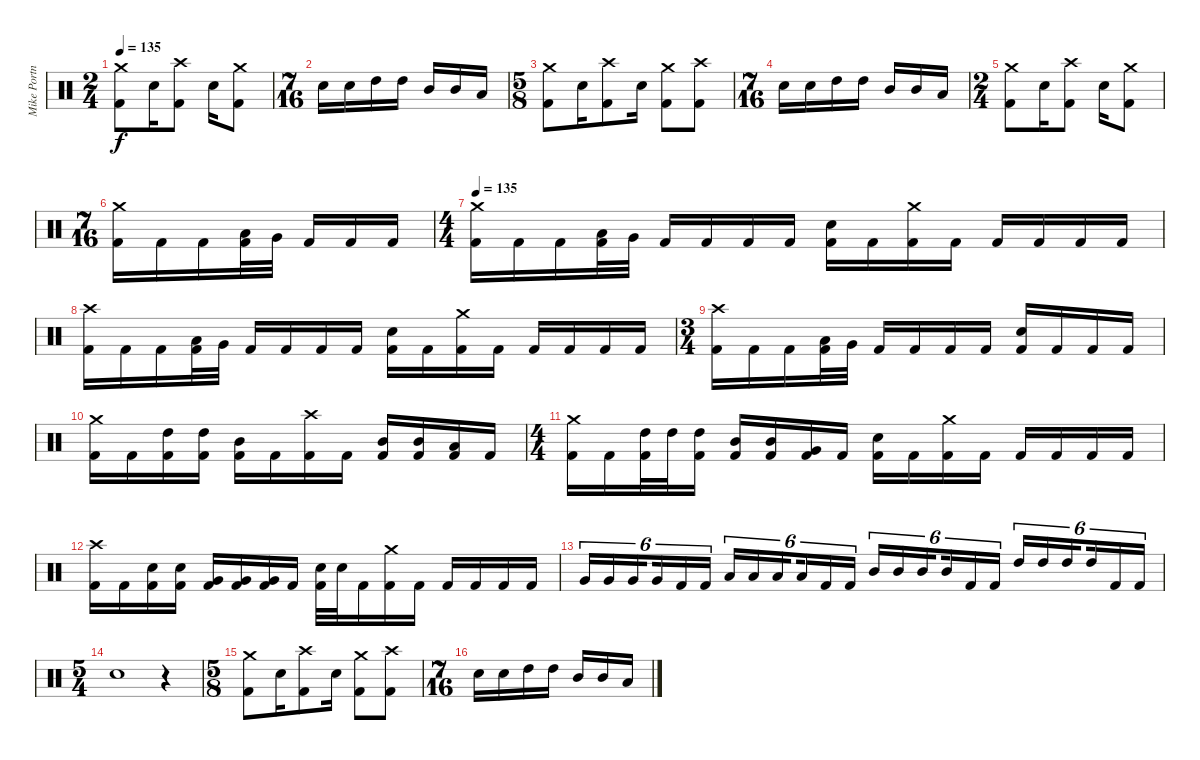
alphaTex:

\track ("Mike Portnoy Drums" "Mike Portn") {instrument percussion}
\staff {score}
\articulation defaults
\ts (2 4)
\tempo 135
\clef neutral
\ks c
("Crash medium (hit)" "Kick (hit) 2").8{dy f} "Snare (hit) 2".16 ("Crash high (hit)" "Kick (hit) 2").8 "Snare (hit) 2".16 ("Crash medium (hit)" "Kick (hit) 2").8 |
\ts (7 16)
"Snare (hit) 2".16 "Snare (hit) 2".16 "High Tom (hit)".16 "High Tom (hit)".16 "Mid Tom (hit)".16 "Mid Tom (hit)".16 "Low Tom (hit)".16 |
\ts (5 8)
("Crash medium (hit)" "Kick (hit) 2").8 "Snare (hit) 2".16 ("Crash high (hit)" "Kick (hit) 2").8 "Snare (hit) 2".16 ("Crash medium (hit)" "Kick (hit) 2").8 ("Crash high (hit)" "Kick (hit) 2").8 |
\ts (7 16)
"Snare (hit) 2".16 "Snare (hit) 2".16 "High Tom (hit)".16 "High Tom (hit)".16 "Mid Tom (hit)".16 "Mid Tom (hit)".16 "Low Tom (hit)".16 |
\ts (2 4)
("Crash medium (hit)" "Kick (hit) 2").8 "Snare (hit) 2".16 ("Crash high (hit)" "Kick (hit) 2").8 "Snare (hit) 2".16 ("Crash medium (hit)" "Kick (hit) 2").8 |
\ts (7 16)
("Crash medium (hit)" "Kick (hit) 2").16 "Kick (hit) 2".16 "Kick (hit) 2".16 ("Low Tom (hit)" "Kick (hit) 2").32 "Very Low Tom (hit)".32 "Kick (hit) 2".16 "Kick (hit) 2".16 "Kick (hit) 2".16 |
\ts (4 4)
\tempo 135
("Crash medium (hit)" "Kick (hit) 2").16 "Kick (hit) 2".16 "Kick (hit) 2".16 ("Low Tom (hit)" "Kick (hit) 2").32 "Very Low Tom (hit)".32 "Kick (hit) 2".16 "Kick (hit) 2".16 "Kick (hit) 2".16 "Kick (hit) 2".16 ("Snare (hit) 2" "Kick (hit) 2").16 "Kick (hit) 2".16 ("Crash medium (hit)" "Kick (hit) 2").16 "Kick (hit) 2".16 "Kick (hit) 2".16 "Kick (hit) 2".16 "Kick (hit) 2".16 "Kick (hit) 2".16 |
("Crash high (hit)" "Kick (hit) 2").16 "Kick (hit) 2".16 "Kick (hit) 2".16 ("Low Tom (hit)" "Kick (hit) 2").32 "Very Low Tom (hit)".32 "Kick (hit) 2".16 "Kick (hit) 2".16 "Kick (hit) 2".16 "Kick (hit) 2".16 ("Snare (hit) 2" "Kick (hit) 2").16 "Kick (hit) 2".16 ("Crash medium (hit)" "Kick (hit) 2").16 "Kick (hit) 2".16 "Kick (hit) 2".16 "Kick (hit) 2".16 "Kick (hit) 2".16 "Kick (hit) 2".16 |
\ts (3 4)
("Crash high (hit)" "Kick (hit) 2").16 "Kick (hit) 2".16 "Kick (hit) 2".16 ("Low Tom (hit)" "Kick (hit) 2").32 "Very Low Tom (hit)".32 "Kick (hit) 2".16 "Kick (hit) 2".16 "Kick (hit) 2".16 "Kick (hit) 2".16 ("Snare (hit) 2" "Kick (hit) 2").16 "Kick (hit) 2".16 "Kick (hit) 2".16 "Kick (hit) 2".16 |
("Crash medium (hit)" "Kick (hit) 2").16 "Kick (hit) 2".16 ("High Tom (hit)" "Kick (hit) 2").16 ("High Tom (hit)" "Kick (hit) 2").16 ("Mid Tom (hit)" "Kick (hit) 2").16 "Kick (hit) 2".16 ("Crash high (hit)" "Kick (hit) 2").16 "Kick (hit) 2".16 ("Mid Tom (hit)" "Kick (hit) 2").16 ("Mid Tom (hit)" "Kick (hit) 2").16 ("Low Floor Tom (hit)" "Kick (hit) 2").16 "Kick (hit) 2".16 |
\ts (4 4)
("Crash medium (hit)" "Kick (hit) 2").16 "Kick (hit) 2".16 ("High Tom (hit)" "Kick (hit) 2").32 "High Tom (hit)".32 ("High Tom (hit)" "Kick (hit) 2").16 ("Mid Tom (hit)" "Kick (hit) 2").16 ("Mid Tom (hit)" "Kick (hit) 2").16 ("Very Low Tom (hit)" "Kick (hit) 2").16 "Kick (hit) 2".16 ("Snare (hit) 2" "Kick (hit) 2").16 "Kick (hit) 2".16 ("Crash medium (hit)" "Kick (hit) 2").16 "Kick (hit) 2".16 "Kick (hit) 2".16 "Kick (hit) 2".16 "Kick (hit) 2".16 "Kick (hit) 2".16 |
("Crash high (hit)" "Kick (hit) 2").16 "Kick (hit) 2".16 ("Snare (hit) 2" "Kick (hit) 2").16 ("Snare (hit) 2" "Kick (hit) 2").16 ("Very Low Tom (hit)" "Kick (hit) 2").16 ("Very Low Tom (hit)" "Kick (hit) 2").16 ("Very Low Tom (hit)" "Kick (hit) 2").16 "Kick (hit) 2".16 ("Snare (hit) 2" "Kick (hit) 2").32 "Snare (hit) 2".32 "Kick (hit) 2".16 ("Crash medium (hit)" "Kick (hit) 2").16 "Kick (hit) 2".16 "Kick (hit) 2".16 "Kick (hit) 2".16 "Kick (hit) 2".16 "Kick (hit) 2".16 |
"Very Low Tom (hit)".16{tu (6 4)} "Very Low Tom (hit)".16{tu (6 4)} "Very Low Tom (hit)".16{tu (6 4) beam splitsecondary} "Very Low Tom (hit)".16{tu (6 4)} "Kick (hit) 2".16{tu (6 4)} "Kick (hit) 2".16{tu (6 4)} "Low Tom (hit)".16{tu (6 4)} "Low Tom (hit)".16{tu (6 4)} "Low Tom (hit)".16{tu (6 4) beam splitsecondary} "Low Tom (hit)".16{tu (6 4)} "Kick (hit) 2".16{tu (6 4)} "Kick (hit) 2".16{tu (6 4)} "Mid Tom (hit)".16{tu (6 4)} "Mid Tom (hit)".16{tu (6 4)} "Mid Tom (hit)".16{tu (6 4) beam splitsecondary} "Mid Tom (hit)".16{tu (6 4)} "Kick (hit) 2".16{tu (6 4)} "Kick (hit) 2".16{tu (6 4)} "High Tom (hit)".16{tu (6 4)} "High Tom (hit)".16{tu (6 4)} "High Tom (hit)".16{tu (6 4) beam splitsecondary} "High Tom (hit)".16{tu (6 4)} "Kick (hit) 2".16{tu (6 4)} "Kick (hit) 2".16{tu (6 4)} |
\ts (5 4)
"Snare (hit) 2".1 r.4 |
\ts (5 8)
("Crash medium (hit)" "Kick (hit) 2").8 "Snare (hit) 2".16 ("Crash high (hit)" "Kick (hit) 2").8 "Snare (hit) 2".16 ("Crash medium (hit)" "Kick (hit) 2").8 ("Crash high (hit)" "Kick (hit) 2").8 |
\ts (7 16)
"Snare (hit) 2".16 "Snare (hit) 2".16 "High Tom (hit)".16 "High Tom (hit)".16 "Mid Tom (hit)".16 "Mid Tom (hit)".16 "Low Tom (hit)".16
